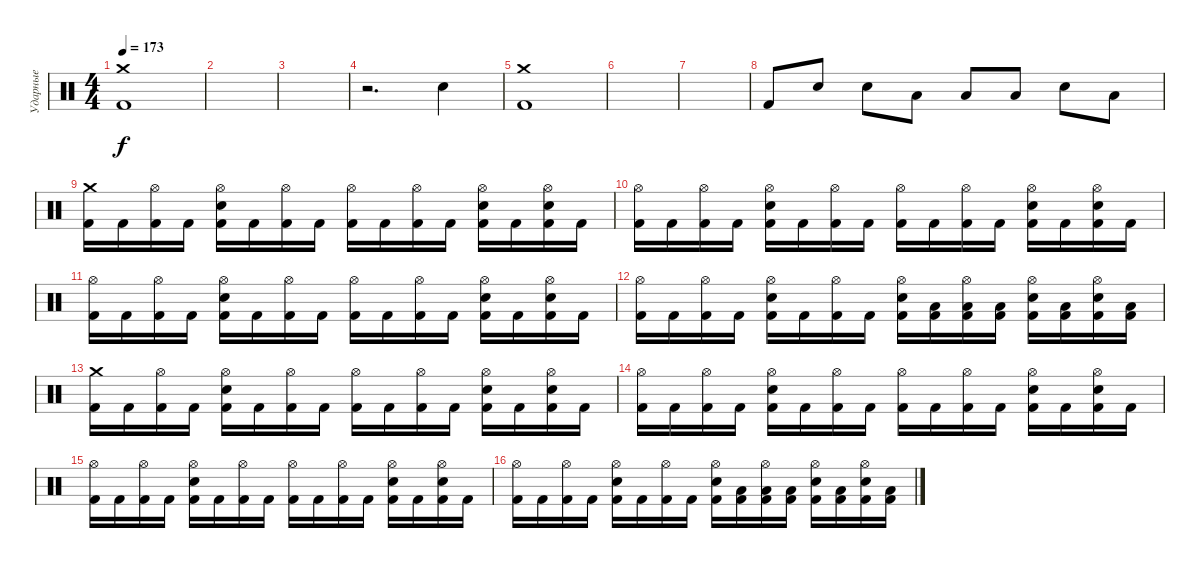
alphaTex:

\track ("Ударные" "Ударные") {instrument percussion}
\staff {score}
\articulation defaults
\ts (4 4)
\tempo 173
\clef neutral
\ks c
("Crash medium (hit)" "Kick (hit) 2").1{dy f} |
|
|
r.2{d} "Electric Snare (hit)".4 |
("Crash medium (hit)" "Kick (hit) 2").1 |
|
|
"Kick (hit) 2".8 "Electric Snare (hit)".8 "Electric Snare (hit)".8 "Low Tom (hit)".8 "Low Tom (hit)".8 "Low Tom (hit)".8 "Electric Snare (hit)".8 "Low Tom (hit)".8 |
("Crash medium (hit)" "Kick (hit) 2").16 "Kick (hit) 2".16 ("Hi-Hat (open)" "Kick (hit) 2").16 "Kick (hit) 2".16 ("Hi-Hat (open)" "Electric Snare (hit)" "Kick (hit) 2").16 "Kick (hit) 2".16 ("Hi-Hat (open)" "Kick (hit) 2").16 "Kick (hit) 2".16 ("Hi-Hat (open)" "Kick (hit) 2").16 "Kick (hit) 2".16 ("Hi-Hat (open)" "Kick (hit) 2").16 "Kick (hit) 2".16 ("Hi-Hat (open)" "Electric Snare (hit)" "Kick (hit) 2").16 "Kick (hit) 2".16 ("Hi-Hat (open)" "Electric Snare (hit)" "Kick (hit) 2").16 "Kick (hit) 2".16 |
("Hi-Hat (open)" "Kick (hit) 2").16 "Kick (hit) 2".16 ("Hi-Hat (open)" "Kick (hit) 2").16 "Kick (hit) 2".16 ("Hi-Hat (open)" "Electric Snare (hit)" "Kick (hit) 2").16 "Kick (hit) 2".16 ("Hi-Hat (open)" "Kick (hit) 2").16 "Kick (hit) 2".16 ("Hi-Hat (open)" "Kick (hit) 2").16 "Kick (hit) 2".16 ("Hi-Hat (open)" "Kick (hit) 2").16 "Kick (hit) 2".16 ("Hi-Hat (open)" "Electric Snare (hit)" "Kick (hit) 2").16 "Kick (hit) 2".16 ("Hi-Hat (open)" "Electric Snare (hit)" "Kick (hit) 2").16 "Kick (hit) 2".16 |
("Hi-Hat (open)" "Kick (hit) 2").16 "Kick (hit) 2".16 ("Hi-Hat (open)" "Kick (hit) 2").16 "Kick (hit) 2".16 ("Hi-Hat (open)" "Electric Snare (hit)" "Kick (hit) 2").16 "Kick (hit) 2".16 ("Hi-Hat (open)" "Kick (hit) 2").16 "Kick (hit) 2".16 ("Hi-Hat (open)" "Kick (hit) 2").16 "Kick (hit) 2".16 ("Hi-Hat (open)" "Kick (hit) 2").16 "Kick (hit) 2".16 ("Hi-Hat (open)" "Electric Snare (hit)" "Kick (hit) 2").16 "Kick (hit) 2".16 ("Hi-Hat (open)" "Electric Snare (hit)" "Kick (hit) 2").16 "Kick (hit) 2".16 |
("Hi-Hat (open)" "Kick (hit) 2").16 "Kick (hit) 2".16 ("Hi-Hat (open)" "Kick (hit) 2").16 "Kick (hit) 2".16 ("Hi-Hat (open)" "Electric Snare (hit)" "Kick (hit) 2").16 "Kick (hit) 2".16 ("Hi-Hat (open)" "Kick (hit) 2").16 "Kick (hit) 2".16 ("Hi-Hat (open)" "Electric Snare (hit)" "Kick (hit) 2").16 ("Low Tom (hit)" "Kick (hit) 2").16 ("Hi-Hat (open)" "Low Tom (hit)" "Kick (hit) 2").16 ("Low Tom (hit)" "Kick (hit) 2").16 ("Hi-Hat (open)" "Electric Snare (hit)" "Kick (hit) 2").16 ("Low Tom (hit)" "Kick (hit) 2").16 ("Hi-Hat (open)" "Electric Snare (hit)" "Kick (hit) 2").16 ("Low Tom (hit)" "Kick (hit) 2").16 |
("Crash medium (hit)" "Kick (hit) 2").16 "Kick (hit) 2".16 ("Hi-Hat (open)" "Kick (hit) 2").16 "Kick (hit) 2".16 ("Hi-Hat (open)" "Electric Snare (hit)" "Kick (hit) 2").16 "Kick (hit) 2".16 ("Hi-Hat (open)" "Kick (hit) 2").16 "Kick (hit) 2".16 ("Hi-Hat (open)" "Kick (hit) 2").16 "Kick (hit) 2".16 ("Hi-Hat (open)" "Kick (hit) 2").16 "Kick (hit) 2".16 ("Hi-Hat (open)" "Electric Snare (hit)" "Kick (hit) 2").16 "Kick (hit) 2".16 ("Hi-Hat (open)" "Electric Snare (hit)" "Kick (hit) 2").16 "Kick (hit) 2".16 |
("Hi-Hat (open)" "Kick (hit) 2").16 "Kick (hit) 2".16 ("Hi-Hat (open)" "Kick (hit) 2").16 "Kick (hit) 2".16 ("Hi-Hat (open)" "Electric Snare (hit)" "Kick (hit) 2").16 "Kick (hit) 2".16 ("Hi-Hat (open)" "Kick (hit) 2").16 "Kick (hit) 2".16 ("Hi-Hat (open)" "Kick (hit) 2").16 "Kick (hit) 2".16 ("Hi-Hat (open)" "Kick (hit) 2").16 "Kick (hit) 2".16 ("Hi-Hat (open)" "Electric Snare (hit)" "Kick (hit) 2").16 "Kick (hit) 2".16 ("Hi-Hat (open)" "Electric Snare (hit)" "Kick (hit) 2").16 "Kick (hit) 2".16 |
("Hi-Hat (open)" "Kick (hit) 2").16 "Kick (hit) 2".16 ("Hi-Hat (open)" "Kick (hit) 2").16 "Kick (hit) 2".16 ("Hi-Hat (open)" "Electric Snare (hit)" "Kick (hit) 2").16 "Kick (hit) 2".16 ("Hi-Hat (open)" "Kick (hit) 2").16 "Kick (hit) 2".16 ("Hi-Hat (open)" "Kick (hit) 2").16 "Kick (hit) 2".16 ("Hi-Hat (open)" "Kick (hit) 2").16 "Kick (hit) 2".16 ("Hi-Hat (open)" "Electric Snare (hit)" "Kick (hit) 2").16 "Kick (hit) 2".16 ("Hi-Hat (open)" "Electric Snare (hit)" "Kick (hit) 2").16 "Kick (hit) 2".16 |
("Hi-Hat (open)" "Kick (hit) 2").16 "Kick (hit) 2".16 ("Hi-Hat (open)" "Kick (hit) 2").16 "Kick (hit) 2".16 ("Hi-Hat (open)" "Electric Snare (hit)" "Kick (hit) 2").16 "Kick (hit) 2".16 ("Hi-Hat (open)" "Kick (hit) 2").16 "Kick (hit) 2".16 ("Hi-Hat (open)" "Electric Snare (hit)" "Kick (hit) 2").16 ("Low Tom (hit)" "Kick (hit) 2").16 ("Hi-Hat (open)" "Low Tom (hit)" "Kick (hit) 2").16 ("Low Tom (hit)" "Kick (hit) 2").16 ("Hi-Hat (open)" "Electric Snare (hit)" "Kick (hit) 2").16 ("Low Tom (hit)" "Kick (hit) 2").16 ("Hi-Hat (open)" "Electric Snare (hit)" "Kick (hit) 2").16 ("Low Tom (hit)" "Kick (hit) 2").16
